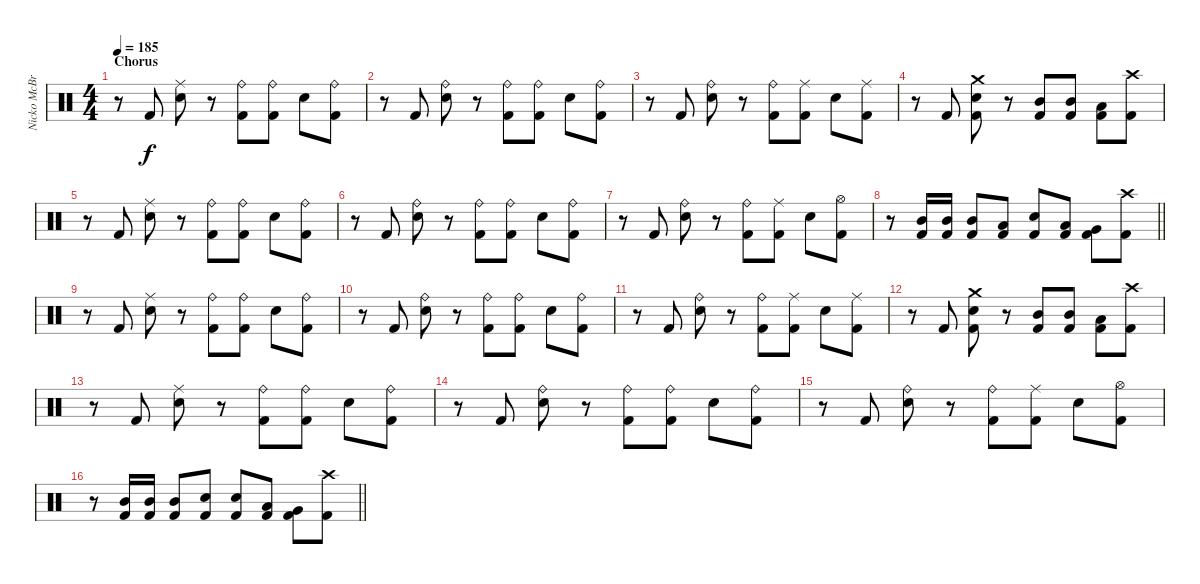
\track ("Nicko McBrain" "Nicko McBr") {instrument percussion}
\staff {score}
\articulation defaults
\ts (4 4)
\section ("" "Chorus")
\tempo 185
\clef neutral
\ks c
r.8{dy f} "Kick (hit) 2".8 ("Ride (middle)" "Snare (hit) 2").8 r.8 ("Ride (bell)" "Kick (hit) 2").8 ("Ride (bell)" "Kick (hit) 2").8 "Snare (hit) 2".8 ("Ride (bell)" "Kick (hit) 2").8 |
r.8 "Kick (hit) 2".8 ("Ride (bell)" "Snare (hit) 2").8 r.8 ("Ride (bell)" "Kick (hit) 2").8 ("Ride (bell)" "Kick (hit) 2").8 "Snare (hit) 2".8 ("Ride (bell)" "Kick (hit) 2").8 |
r.8 "Kick (hit) 2".8 ("Ride (bell)" "Snare (hit) 2").8 r.8 ("Ride (bell)" "Kick (hit) 2").8 ("Ride (middle)" "Kick (hit) 2").8 "Snare (hit) 2".8 ("Ride (middle)" "Kick (hit) 2").8 |
r.8 "Kick (hit) 2".8 ("Crash medium (hit)" "Snare (hit) 2" "Kick (hit) 2").8 r.8 ("Mid Tom (hit)" "Kick (hit) 2").8 ("Mid Tom (hit)" "Kick (hit) 2").8 ("Low Tom (hit)" "Kick (hit) 2").8 ("Crash high (hit)" "Kick (hit) 2").8 |
r.8 "Kick (hit) 2".8 ("Ride (middle)" "Snare (hit) 2").8 r.8 ("Ride (bell)" "Kick (hit) 2").8 ("Ride (bell)" "Kick (hit) 2").8 "Snare (hit) 2".8 ("Ride (bell)" "Kick (hit) 2").8 |
r.8 "Kick (hit) 2".8 ("Ride (bell)" "Snare (hit) 2").8 r.8 ("Ride (bell)" "Kick (hit) 2").8 ("Ride (bell)" "Kick (hit) 2").8 "Snare (hit) 2".8 ("Ride (bell)" "Kick (hit) 2").8 |
r.8 "Kick (hit) 2".8 ("Ride (bell)" "Snare (hit) 2").8 r.8 ("Ride (bell)" "Kick (hit) 2").8 ("Ride (middle)" "Kick (hit) 2").8 "Snare (hit) 2".8 ("Hi-Hat (open)" "Kick (hit) 2").8 |
\barLineRight lightlight
r.8 ("Mid Tom (hit)" "Kick (hit) 2").16 ("Mid Tom (hit)" "Kick (hit) 2").16 ("Mid Tom (hit)" "Kick (hit) 2").8 ("Low Tom (hit)" "Kick (hit) 2").8 ("Snare (hit) 2" "Kick (hit) 2").8 ("Low Tom (hit)" "Kick (hit) 2").8 ("Very Low Tom (hit)" "Kick (hit) 2").8 ("Crash high (hit)" "Kick (hit) 2").8 |
r.8 "Kick (hit) 2".8 ("Ride (middle)" "Snare (hit) 2").8 r.8 ("Ride (bell)" "Kick (hit) 2").8 ("Ride (bell)" "Kick (hit) 2").8 "Snare (hit) 2".8 ("Ride (bell)" "Kick (hit) 2").8 |
r.8 "Kick (hit) 2".8 ("Ride (bell)" "Snare (hit) 2").8 r.8 ("Ride (bell)" "Kick (hit) 2").8 ("Ride (bell)" "Kick (hit) 2").8 "Snare (hit) 2".8 ("Ride (bell)" "Kick (hit) 2").8 |
r.8 "Kick (hit) 2".8 ("Ride (bell)" "Snare (hit) 2").8 r.8 ("Ride (bell)" "Kick (hit) 2").8 ("Ride (middle)" "Kick (hit) 2").8 "Snare (hit) 2".8 ("Ride (middle)" "Kick (hit) 2").8 |
r.8 "Kick (hit) 2".8 ("Crash medium (hit)" "Snare (hit) 2" "Kick (hit) 2").8 r.8 ("Mid Tom (hit)" "Kick (hit) 2").8 ("Mid Tom (hit)" "Kick (hit) 2").8 ("Low Tom (hit)" "Kick (hit) 2").8 ("Crash high (hit)" "Kick (hit) 2").8 |
r.8 "Kick (hit) 2".8 ("Ride (middle)" "Snare (hit) 2").8 r.8 ("Ride (bell)" "Kick (hit) 2").8 ("Ride (bell)" "Kick (hit) 2").8 "Snare (hit) 2".8 ("Ride (bell)" "Kick (hit) 2").8 |
r.8 "Kick (hit) 2".8 ("Ride (bell)" "Snare (hit) 2").8 r.8 ("Ride (bell)" "Kick (hit) 2").8 ("Ride (bell)" "Kick (hit) 2").8 "Snare (hit) 2".8 ("Ride (bell)" "Kick (hit) 2").8 |
r.8 "Kick (hit) 2".8 ("Ride (bell)" "Snare (hit) 2").8 r.8 ("Ride (bell)" "Kick (hit) 2").8 ("Ride (middle)" "Kick (hit) 2").8 "Snare (hit) 2".8 ("Hi-Hat (open)" "Kick (hit) 2").8 |
\barLineRight lightlight
r.8 ("Mid Tom (hit)" "Kick (hit) 2").16 ("Mid Tom (hit)" "Kick (hit) 2").16 ("Mid Tom (hit)" "Kick (hit) 2").8 ("Snare (hit) 2" "Kick (hit) 2").8 ("Snare (hit) 2" "Kick (hit) 2").8 ("Low Tom (hit)" "Kick (hit) 2").8 ("Very Low Tom (hit)" "Kick (hit) 2").8 ("Crash high (hit)" "Kick (hit) 2").8
